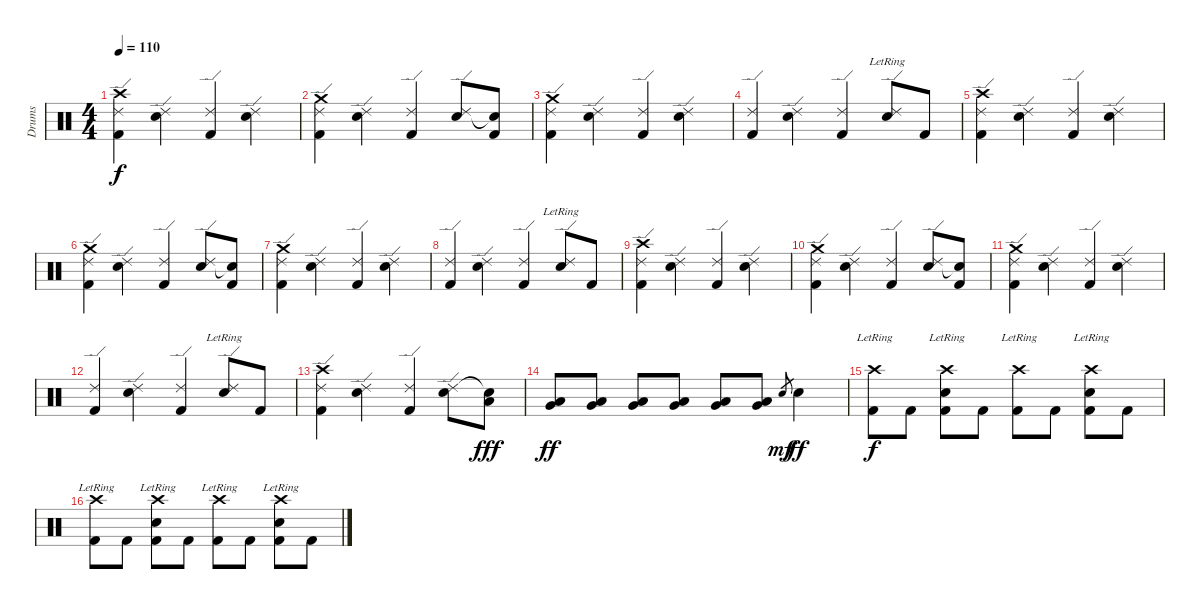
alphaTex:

\track ("Drums" "Drums") {instrument percussion}
\staff {score}
\articulation defaults
\ts (4 4)
\tempo 110
\clef neutral
\ks c
("Crash high (hit)" "Ride (edge) 2" "Kick (hit) 2").4{dy f} ("Ride (edge) 2" "Electric Snare (hit)").4 ("Ride (edge) 2" "Kick (hit) 2").4 ("Ride (edge) 2" "Electric Snare (hit)").4 |
("Crash medium (hit)" "Ride (edge) 2" "Kick (hit) 2").4 ("Ride (edge) 2" "Electric Snare (hit)").4 ("Ride (edge) 2" "Kick (hit) 2").4 ("Ride (edge) 2" "Electric Snare (hit)").8 ("Snare (hit)"{t} "Kick (hit) 2").8 |
("Crash medium (hit)" "Ride (edge) 2" "Kick (hit) 2").4 ("Ride (edge) 2" "Electric Snare (hit)").4 ("Ride (edge) 2" "Kick (hit) 2").4 ("Ride (edge) 2" "Electric Snare (hit)").4 |
("Ride (edge) 2" "Kick (hit) 2").4 ("Ride (edge) 2" "Electric Snare (hit)").4 ("Ride (edge) 2" "Kick (hit) 2").4 ("Ride (edge) 2"{lr} "Electric Snare (hit)").8 "Kick (hit) 2".8 |
("Crash high (hit)" "Ride (edge) 2" "Kick (hit) 2").4 ("Ride (edge) 2" "Electric Snare (hit)").4 ("Ride (edge) 2" "Kick (hit) 2").4 ("Ride (edge) 2" "Electric Snare (hit)").4 |
("Crash medium (hit)" "Ride (edge) 2" "Kick (hit) 2").4 ("Ride (edge) 2" "Electric Snare (hit)").4 ("Ride (edge) 2" "Kick (hit) 2").4 ("Ride (edge) 2" "Electric Snare (hit)").8 ("Snare (hit)"{t} "Kick (hit) 2").8 |
("Crash medium (hit)" "Ride (edge) 2" "Kick (hit) 2").4 ("Ride (edge) 2" "Electric Snare (hit)").4 ("Ride (edge) 2" "Kick (hit) 2").4 ("Ride (edge) 2" "Electric Snare (hit)").4 |
("Ride (edge) 2" "Kick (hit) 2").4 ("Ride (edge) 2" "Electric Snare (hit)").4 ("Ride (edge) 2" "Kick (hit) 2").4 ("Ride (edge) 2"{lr} "Electric Snare (hit)").8 "Kick (hit) 2".8 |
("Crash high (hit)" "Ride (edge) 2" "Kick (hit) 2").4 ("Ride (edge) 2" "Electric Snare (hit)").4 ("Ride (edge) 2" "Kick (hit) 2").4 ("Ride (edge) 2" "Electric Snare (hit)").4 |
("Crash medium (hit)" "Ride (edge) 2" "Kick (hit) 2").4 ("Ride (edge) 2" "Electric Snare (hit)").4 ("Ride (edge) 2" "Kick (hit) 2").4 ("Ride (edge) 2" "Electric Snare (hit)").8 ("Snare (hit)"{t} "Kick (hit) 2").8 |
("Crash medium (hit)" "Ride (edge) 2" "Kick (hit) 2").4 ("Ride (edge) 2" "Electric Snare (hit)").4 ("Ride (edge) 2" "Kick (hit) 2").4 ("Ride (edge) 2" "Electric Snare (hit)").4 |
("Ride (edge) 2" "Kick (hit) 2").4 ("Ride (edge) 2" "Electric Snare (hit)").4 ("Ride (edge) 2" "Kick (hit) 2").4 ("Ride (edge) 2"{lr} "Electric Snare (hit)").8 "Kick (hit) 2".8 |
("Crash high (hit)" "Ride (edge) 2" "Kick (hit) 2").4 ("Ride (edge) 2" "Electric Snare (hit)").4 ("Ride (edge) 2" "Kick (hit) 2").4 ("Ride (edge) 2" "Electric Snare (hit)").8 ("Snare (hit)"{t} "Low Floor Tom (hit)").8{dy fff} |
("Low Floor Tom (hit)" "Very Low Tom (hit)").8{dy ff} ("Low Floor Tom (hit)" "Very Low Tom (hit)").8 ("Low Floor Tom (hit)" "Very Low Tom (hit)").8 ("Low Floor Tom (hit)" "Very Low Tom (hit)").8 ("Low Floor Tom (hit)" "Very Low Tom (hit)").8 ("Low Floor Tom (hit)" "Very Low Tom (hit)").8 "Electric Snare (hit)".8{gr dy mf} "Electric Snare (hit)".4{dy ff} |
("Crash high (hit)"{lr} "Kick (hit) 2").8{dy f} "Kick (hit) 2".8 ("Crash high (hit)"{lr} "Electric Snare (hit)" "Kick (hit) 2").8 "Kick (hit) 2".8 ("Crash high (hit)"{lr} "Kick (hit) 2").8 "Kick (hit) 2".8 ("Crash high (hit)"{lr} "Electric Snare (hit)" "Kick (hit) 2").8 "Kick (hit) 2".8 |
("Crash high (hit)"{lr} "Kick (hit) 2").8 "Kick (hit) 2".8 ("Crash high (hit)"{lr} "Electric Snare (hit)" "Kick (hit) 2").8 "Kick (hit) 2".8 ("Crash high (hit)"{lr} "Kick (hit) 2").8 "Kick (hit) 2".8 ("Crash high (hit)"{lr} "Electric Snare (hit)" "Kick (hit) 2").8 "Kick (hit) 2".8
